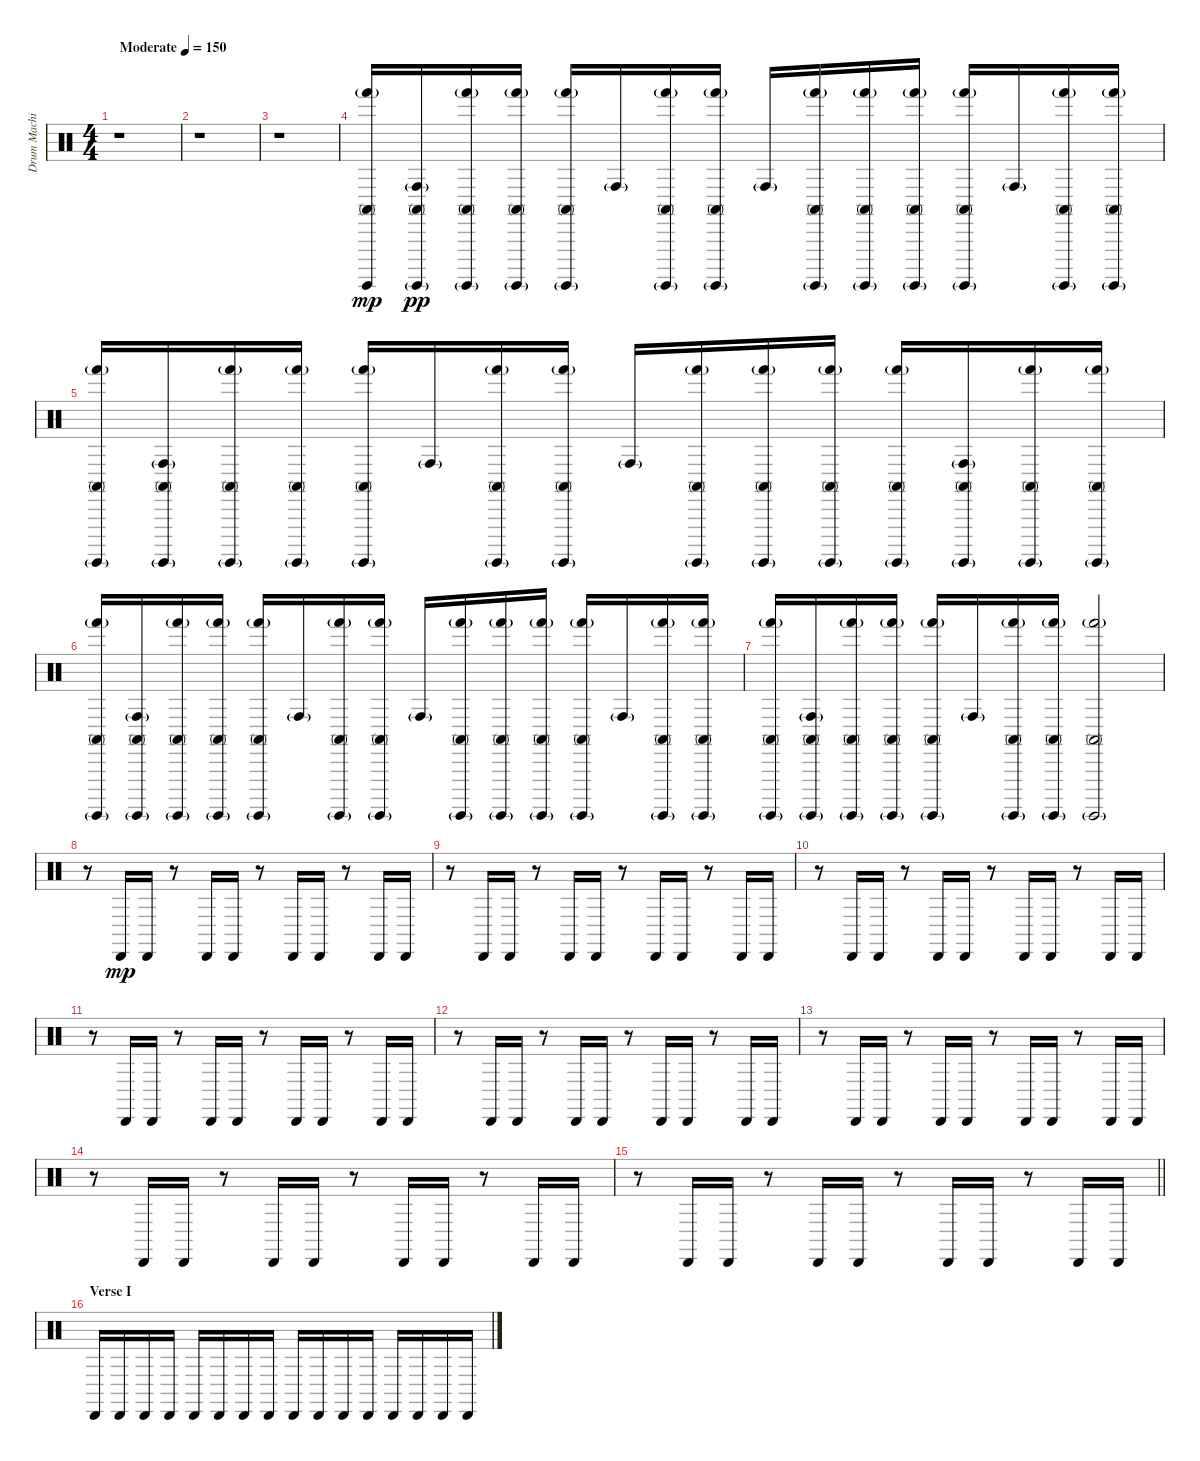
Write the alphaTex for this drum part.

\track ("Drum Machine" "Drum Machi") {instrument percussion}
\staff {score}
\articulation defaults
\ts (4 4)
\tempo (150 "Moderate")
\clef neutral
\ks c
r.1{dy mp} |
r.1 |
r.1 |
("Hand (hit)"{g} "Conga high (mute)" "Surdo (hit)").16{balance 16} ("Conga high (hit)"{g} "Conga high (mute)" "Surdo (hit)"{g}).16{dy pp} ("Hand (hit)"{g} "Conga high (mute)" "Surdo (hit)"{g}).16 ("Hand (hit)"{g} "Conga high (mute)" "Surdo (hit)"{g}).16 ("Hand (hit)"{g} "Conga high (mute)" "Surdo (hit)"{g}).16 "Conga high (hit)"{g}.16 ("Hand (hit)"{g} "Conga high (mute)" "Surdo (hit)"{g}).16 ("Hand (hit)"{g} "Conga high (mute)" "Surdo (hit)"{g}).16 "Conga high (hit)"{g}.16 ("Hand (hit)"{g} "Conga high (mute)" "Surdo (hit)"{g}).16 ("Hand (hit)"{g} "Conga high (mute)" "Surdo (hit)"{g}).16 ("Hand (hit)"{g} "Conga high (mute)" "Surdo (hit)"{g}).16 ("Hand (hit)"{g} "Conga high (mute)" "Surdo (hit)"{g}).16 "Conga high (hit)"{g}.16 ("Hand (hit)"{g} "Conga high (mute)" "Surdo (hit)"{g}).16 ("Hand (hit)"{g} "Conga high (mute)" "Surdo (hit)"{g}).16 |
("Hand (hit)"{g} "Conga high (mute)" "Surdo (hit)"{g}).16 ("Conga high (hit)"{g} "Conga high (mute)" "Surdo (hit)"{g}).16 ("Hand (hit)"{g} "Conga high (mute)" "Surdo (hit)"{g}).16 ("Hand (hit)"{g} "Conga high (mute)" "Surdo (hit)"{g}).16 ("Hand (hit)"{g} "Conga high (mute)" "Surdo (hit)"{g}).16 "Conga high (hit)"{g}.16 ("Hand (hit)"{g} "Conga high (mute)" "Surdo (hit)"{g}).16 ("Hand (hit)"{g} "Conga high (mute)" "Surdo (hit)"{g}).16 "Conga high (hit)"{g}.16 ("Hand (hit)"{g} "Conga high (mute)" "Surdo (hit)"{g}).16 ("Hand (hit)"{g} "Conga high (mute)" "Surdo (hit)"{g}).16 ("Hand (hit)"{g} "Conga high (mute)" "Surdo (hit)"{g}).16 ("Hand (hit)"{g} "Conga high (mute)" "Surdo (hit)"{g}).16 ("Conga high (hit)"{g} "Conga high (mute)" "Surdo (hit)"{g}).16 ("Hand (hit)"{g} "Conga high (mute)" "Surdo (hit)"{g}).16 ("Hand (hit)"{g} "Conga high (mute)" "Surdo (hit)"{g}).16 |
("Hand (hit)"{g} "Conga high (mute)" "Surdo (hit)"{g}).16 ("Conga high (hit)"{g} "Conga high (mute)" "Surdo (hit)"{g}).16 ("Hand (hit)"{g} "Conga high (mute)" "Surdo (hit)"{g}).16 ("Hand (hit)"{g} "Conga high (mute)" "Surdo (hit)"{g}).16 ("Hand (hit)"{g} "Conga high (mute)" "Surdo (hit)"{g}).16 "Conga high (hit)"{g}.16 ("Hand (hit)"{g} "Conga high (mute)" "Surdo (hit)"{g}).16 ("Hand (hit)"{g} "Conga high (mute)" "Surdo (hit)"{g}).16 "Conga high (hit)"{g}.16 ("Hand (hit)"{g} "Conga high (mute)" "Surdo (hit)"{g}).16 ("Hand (hit)"{g} "Conga high (mute)" "Surdo (hit)"{g}).16 ("Hand (hit)"{g} "Conga high (mute)" "Surdo (hit)"{g}).16 ("Hand (hit)"{g} "Conga high (mute)" "Surdo (hit)"{g}).16 "Conga high (hit)"{g}.16 ("Hand (hit)"{g} "Conga high (mute)" "Surdo (hit)"{g}).16 ("Hand (hit)"{g} "Conga high (mute)" "Surdo (hit)"{g}).16 |
("Hand (hit)"{g} "Conga high (mute)" "Surdo (hit)"{g}).16 ("Conga high (hit)"{g} "Conga high (mute)" "Surdo (hit)"{g}).16 ("Hand (hit)"{g} "Conga high (mute)" "Surdo (hit)"{g}).16 ("Hand (hit)"{g} "Conga high (mute)" "Surdo (hit)"{g}).16 ("Hand (hit)"{g} "Conga high (mute)" "Surdo (hit)"{g}).16 "Conga high (hit)"{g}.16 ("Hand (hit)"{g} "Conga high (mute)" "Surdo (hit)"{g}).16 ("Hand (hit)"{g} "Conga high (mute)" "Surdo (hit)"{g}).16 ("Hand (hit)"{g} "Conga high (mute)" "Surdo (hit)"{g}).2 |
r.8{balance 8} "Cabasa (hit)".16{dy mp} "Cabasa (hit)".16 r.8 "Cabasa (hit)".16 "Cabasa (hit)".16 r.8 "Cabasa (hit)".16 "Cabasa (hit)".16 r.8 "Cabasa (hit)".16 "Cabasa (hit)".16 |
r.8 "Cabasa (hit)".16 "Cabasa (hit)".16 r.8 "Cabasa (hit)".16 "Cabasa (hit)".16 r.8 "Cabasa (hit)".16 "Cabasa (hit)".16 r.8 "Cabasa (hit)".16 "Cabasa (hit)".16 |
r.8 "Cabasa (hit)".16 "Cabasa (hit)".16 r.8 "Cabasa (hit)".16 "Cabasa (hit)".16 r.8 "Cabasa (hit)".16 "Cabasa (hit)".16 r.8 "Cabasa (hit)".16 "Cabasa (hit)".16 |
r.8 "Cabasa (hit)".16 "Cabasa (hit)".16 r.8 "Cabasa (hit)".16 "Cabasa (hit)".16 r.8 "Cabasa (hit)".16 "Cabasa (hit)".16 r.8 "Cabasa (hit)".16 "Cabasa (hit)".16 |
r.8 "Cabasa (hit)".16 "Cabasa (hit)".16 r.8 "Cabasa (hit)".16 "Cabasa (hit)".16 r.8 "Cabasa (hit)".16 "Cabasa (hit)".16 r.8 "Cabasa (hit)".16 "Cabasa (hit)".16 |
r.8 "Cabasa (hit)".16 "Cabasa (hit)".16 r.8 "Cabasa (hit)".16 "Cabasa (hit)".16 r.8 "Cabasa (hit)".16 "Cabasa (hit)".16 r.8 "Cabasa (hit)".16 "Cabasa (hit)".16 |
r.8 "Cabasa (hit)".16 "Cabasa (hit)".16 r.8 "Cabasa (hit)".16 "Cabasa (hit)".16 r.8 "Cabasa (hit)".16 "Cabasa (hit)".16 r.8 "Cabasa (hit)".16 "Cabasa (hit)".16 |
\barLineRight lightlight
r.8 "Cabasa (hit)".16 "Cabasa (hit)".16 r.8 "Cabasa (hit)".16 "Cabasa (hit)".16 r.8 "Cabasa (hit)".16 "Cabasa (hit)".16 r.8 "Cabasa (hit)".16 "Cabasa (hit)".16 |
\section ("" "Verse I")
"Cabasa (hit)".16 "Cabasa (hit)".16 "Cabasa (hit)".16 "Cabasa (hit)".16 "Cabasa (hit)".16 "Cabasa (hit)".16 "Cabasa (hit)".16 "Cabasa (hit)".16 "Cabasa (hit)".16 "Cabasa (hit)".16 "Cabasa (hit)".16 "Cabasa (hit)".16 "Cabasa (hit)".16 "Cabasa (hit)".16 "Cabasa (hit)".16 "Cabasa (hit)".16
